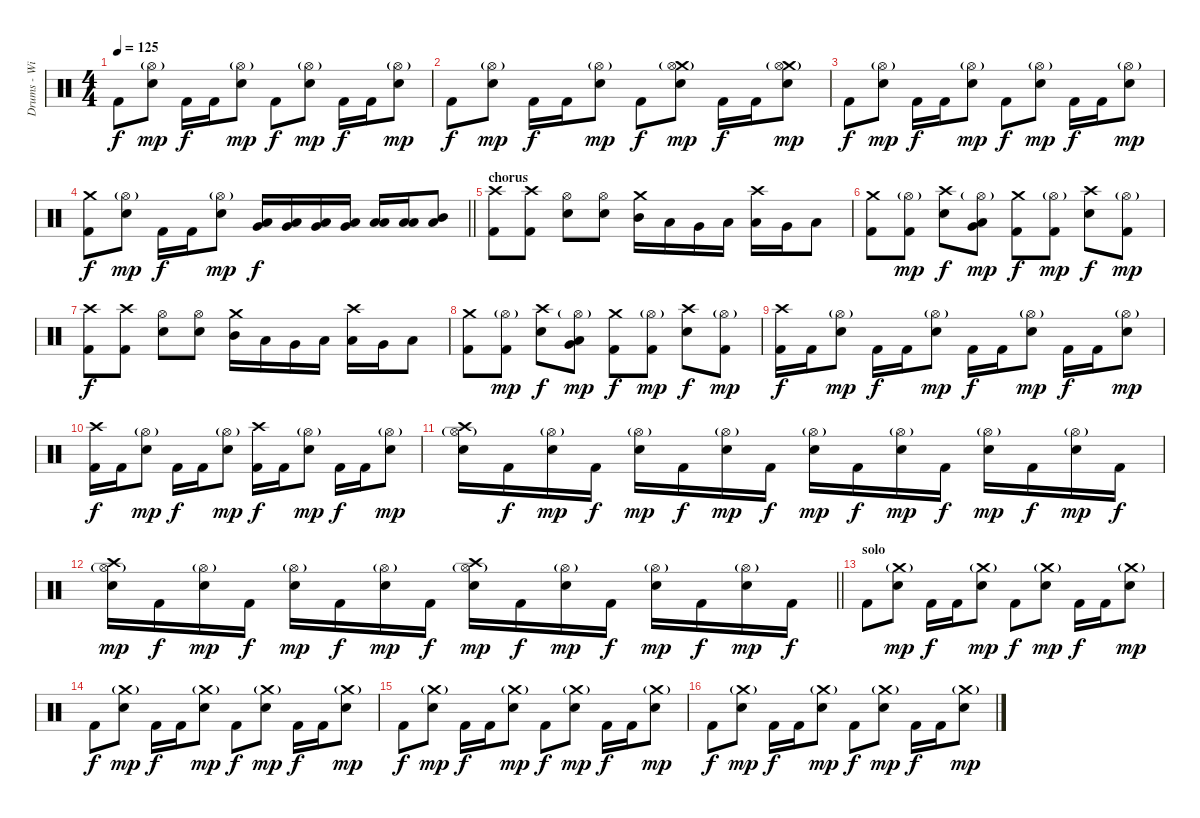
\track ("Drums - Willie Buchan" "Drums - Wi") {instrument percussion}
\staff {score}
\articulation defaults
\ts (4 4)
\tempo 125
\clef neutral
\ks c "Kick (hit) 2".8{dy f}
("Hi-Hat (open)"{g} "Electric Snare (hit)").8{dy mp} "Kick (hit) 2".16{dy f} "Kick (hit) 2".16 ("Hi-Hat (open)"{g} "Electric Snare (hit)").8{dy mp} "Kick (hit) 2".8{dy f} ("Hi-Hat (open)"{g} "Electric Snare (hit)").8{dy mp} "Kick (hit) 2".16{dy f} "Kick (hit) 2".16 ("Hi-Hat (open)"{g} "Electric Snare (hit)").8{dy mp} |
"Kick (hit) 2".8{dy f} ("Hi-Hat (open)"{g} "Electric Snare (hit)").8{dy mp} "Kick (hit) 2".16{dy f} "Kick (hit) 2".16 ("Hi-Hat (open)"{g} "Electric Snare (hit)").8{dy mp} "Kick (hit) 2".8{dy f} ("Crash medium (hit)"{g} "Hi-Hat (open)"{g} "Electric Snare (hit)").8{dy mp} "Kick (hit) 2".16{dy f} "Kick (hit) 2".16 ("Crash medium (hit)"{g} "Hi-Hat (open)"{g} "Electric Snare (hit)").8{dy mp} |
"Kick (hit) 2".8{dy f} ("Hi-Hat (open)"{g} "Electric Snare (hit)").8{dy mp} "Kick (hit) 2".16{dy f} "Kick (hit) 2".16 ("Hi-Hat (open)"{g} "Electric Snare (hit)").8{dy mp} "Kick (hit) 2".8{dy f} ("Hi-Hat (open)"{g} "Electric Snare (hit)").8{dy mp} "Kick (hit) 2".16{dy f} "Kick (hit) 2".16 ("Hi-Hat (open)"{g} "Electric Snare (hit)").8{dy mp} |
\barLineRight lightlight
("Crash medium (hit)" "Kick (hit) 2").8{dy f} ("Hi-Hat (open)"{g} "Electric Snare (hit)").8{dy mp} "Kick (hit) 2".16{dy f} "Kick (hit) 2".16 ("Hi-Hat (open)"{g} "Electric Snare (hit)").8{dy mp} ("Very Low Tom (hit)" "Low Floor Tom (hit)").16{dy f} ("Very Low Tom (hit)" "Low Floor Tom (hit)").16 ("Very Low Tom (hit)" "Low Floor Tom (hit)").16 ("Very Low Tom (hit)" "Low Floor Tom (hit)").16 ("Low Tom (hit)" "Low Floor Tom (hit)").16 ("Low Tom (hit)" "Low Floor Tom (hit)").16 ("Mid Tom (hit)" "Low Floor Tom (hit)").8 |
\section ("" "chorus")
("Crash high (hit)" "Kick (hit) 2").8 ("Crash high (hit)" "Kick (hit) 2").8 ("Hi-Hat (open)" "Electric Snare (hit)").8 ("Hi-Hat (open)" "Electric Snare (hit)").8 ("Crash medium (hit)" "Mid Tom (hit)").16 "Low Tom (hit)".16 "Very Low Tom (hit)".16 "Low Floor Tom (hit)".16 ("Crash high (hit)" "Low Tom (hit)").16 "Very Low Tom (hit)".16 "Low Floor Tom (hit)".8 |
("Crash medium (hit)" "Kick (hit) 2").8 ("Hi-Hat (open)"{g} "Kick (hit) 2").8{dy mp} ("Crash high (hit)" "Electric Snare (hit)").8{dy f} ("Hi-Hat (open)"{g} "Low Tom (hit)" "Very Low Tom (hit)").8{dy mp} ("Crash medium (hit)" "Kick (hit) 2").8{dy f} ("Hi-Hat (open)"{g} "Kick (hit) 2").8{dy mp} ("Crash high (hit)" "Electric Snare (hit)").8{dy f} ("Hi-Hat (open)"{g} "Kick (hit) 2").8{dy mp} |
("Crash high (hit)" "Kick (hit) 2").8{dy f} ("Crash high (hit)" "Kick (hit) 2").8 ("Hi-Hat (open)" "Electric Snare (hit)").8 ("Hi-Hat (open)" "Electric Snare (hit)").8 ("Crash medium (hit)" "Mid Tom (hit)").16 "Low Tom (hit)".16 "Very Low Tom (hit)".16 "Low Floor Tom (hit)".16 ("Crash high (hit)" "Low Tom (hit)").16 "Very Low Tom (hit)".16 "Low Floor Tom (hit)".8 |
("Crash medium (hit)" "Kick (hit) 2").8 ("Hi-Hat (open)"{g} "Kick (hit) 2").8{dy mp} ("Crash high (hit)" "Electric Snare (hit)").8{dy f} ("Hi-Hat (open)"{g} "Low Tom (hit)" "Very Low Tom (hit)").8{dy mp} ("Crash medium (hit)" "Kick (hit) 2").8{dy f} ("Hi-Hat (open)"{g} "Kick (hit) 2").8{dy mp} ("Crash high (hit)" "Electric Snare (hit)").8{dy f} ("Hi-Hat (open)"{g} "Kick (hit) 2").8{dy mp} |
("Crash high (hit)" "Kick (hit) 2").16{dy f} "Kick (hit) 2".16 ("Hi-Hat (open)"{g} "Electric Snare (hit)").8{dy mp} "Kick (hit) 2".16{dy f} "Kick (hit) 2".16 ("Hi-Hat (open)"{g} "Electric Snare (hit)").8{dy mp} "Kick (hit) 2".16{dy f} "Kick (hit) 2".16 ("Hi-Hat (open)"{g} "Electric Snare (hit)").8{dy mp} "Kick (hit) 2".16{dy f} "Kick (hit) 2".16 ("Hi-Hat (open)"{g} "Electric Snare (hit)").8{dy mp} |
("Crash high (hit)" "Kick (hit) 2").16{dy f} "Kick (hit) 2".16 ("Hi-Hat (open)"{g} "Electric Snare (hit)").8{dy mp} "Kick (hit) 2".16{dy f} "Kick (hit) 2".16 ("Hi-Hat (open)"{g} "Electric Snare (hit)").8{dy mp} ("Crash high (hit)" "Kick (hit) 2").16{dy f} "Kick (hit) 2".16 ("Hi-Hat (open)"{g} "Electric Snare (hit)").8{dy mp} "Kick (hit) 2".16{dy f} "Kick (hit) 2".16 ("Hi-Hat (open)"{g} "Electric Snare (hit)").8{dy mp} |
("Hi-Hat (open)"{g} "Crash high (hit)" "Electric Snare (hit)").16 "Kick (hit) 2".16{dy f} ("Hi-Hat (open)"{g} "Electric Snare (hit)").16{dy mp} "Kick (hit) 2".16{dy f} ("Hi-Hat (open)"{g} "Electric Snare (hit)").16{dy mp} "Kick (hit) 2".16{dy f} ("Hi-Hat (open)"{g} "Electric Snare (hit)").16{dy mp} "Kick (hit) 2".16{dy f} ("Hi-Hat (open)"{g} "Electric Snare (hit)").16{dy mp} "Kick (hit) 2".16{dy f} ("Hi-Hat (open)"{g} "Electric Snare (hit)").16{dy mp} "Kick (hit) 2".16{dy f} ("Hi-Hat (open)"{g} "Electric Snare (hit)").16{dy mp} "Kick (hit) 2".16{dy f} ("Hi-Hat (open)"{g} "Electric Snare (hit)").16{dy mp} "Kick (hit) 2".16{dy f} |
\barLineRight lightlight
("Hi-Hat (open)"{g} "Crash high (hit)" "Electric Snare (hit)").16{dy mp} "Kick (hit) 2".16{dy f} ("Hi-Hat (open)"{g} "Electric Snare (hit)").16{dy mp} "Kick (hit) 2".16{dy f} ("Hi-Hat (open)"{g} "Electric Snare (hit)").16{dy mp} "Kick (hit) 2".16{dy f} ("Hi-Hat (open)"{g} "Electric Snare (hit)").16{dy mp} "Kick (hit) 2".16{dy f} ("Hi-Hat (open)"{g} "Crash high (hit)" "Electric Snare (hit)").16{dy mp} "Kick (hit) 2".16{dy f} ("Hi-Hat (open)"{g} "Electric Snare (hit)").16{dy mp} "Kick (hit) 2".16{dy f} ("Hi-Hat (open)"{g} "Electric Snare (hit)").16{dy mp} "Kick (hit) 2".16{dy f} ("Hi-Hat (open)"{g} "Electric Snare (hit)").16{dy mp} "Kick (hit) 2".16{dy f} |
\section ("" "solo")
"Kick (hit) 2".8 ("Crash medium (hit)"{g} "Electric Snare (hit)").8{dy mp} "Kick (hit) 2".16{dy f} "Kick (hit) 2".16 ("Crash medium (hit)"{g} "Electric Snare (hit)").8{dy mp} "Kick (hit) 2".8{dy f} ("Crash medium (hit)"{g} "Electric Snare (hit)").8{dy mp} "Kick (hit) 2".16{dy f} "Kick (hit) 2".16 ("Crash medium (hit)"{g} "Electric Snare (hit)").8{dy mp} |
"Kick (hit) 2".8{dy f} ("Crash medium (hit)"{g} "Electric Snare (hit)").8{dy mp} "Kick (hit) 2".16{dy f} "Kick (hit) 2".16 ("Crash medium (hit)"{g} "Electric Snare (hit)").8{dy mp} "Kick (hit) 2".8{dy f} ("Crash medium (hit)"{g} "Electric Snare (hit)").8{dy mp} "Kick (hit) 2".16{dy f} "Kick (hit) 2".16 ("Crash medium (hit)"{g} "Electric Snare (hit)").8{dy mp} |
"Kick (hit) 2".8{dy f} ("Crash medium (hit)"{g} "Electric Snare (hit)").8{dy mp} "Kick (hit) 2".16{dy f} "Kick (hit) 2".16 ("Crash medium (hit)"{g} "Electric Snare (hit)").8{dy mp} "Kick (hit) 2".8{dy f} ("Crash medium (hit)"{g} "Electric Snare (hit)").8{dy mp} "Kick (hit) 2".16{dy f} "Kick (hit) 2".16 ("Crash medium (hit)"{g} "Electric Snare (hit)").8{dy mp} |
"Kick (hit) 2".8{dy f} ("Crash medium (hit)"{g} "Electric Snare (hit)").8{dy mp} "Kick (hit) 2".16{dy f} "Kick (hit) 2".16 ("Crash medium (hit)"{g} "Electric Snare (hit)").8{dy mp} "Kick (hit) 2".8{dy f} ("Crash medium (hit)"{g} "Electric Snare (hit)").8{dy mp} "Kick (hit) 2".16{dy f} "Kick (hit) 2".16 ("Crash medium (hit)"{g} "Electric Snare (hit)").8{dy mp}
